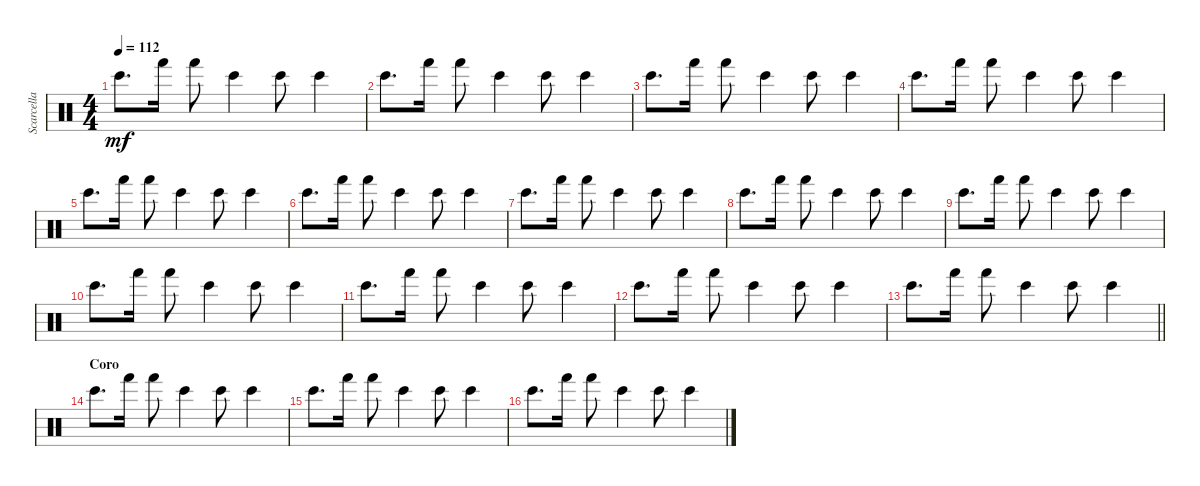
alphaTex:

\track ("Scarcella" "Scarcella") {instrument percussion}
\staff {score}
\articulation defaults
\ts (4 4)
\tempo 112
\clef neutral
\ks c "Bongo High (hit)".8{d dy mf} "Hand (hit)".16 "Hand (hit)".8 "Bongo High (hit)".4 "Bongo High (hit)".8 "Bongo High (hit)".4
|
"Bongo High (hit)".8{d} "Hand (hit)".16 "Hand (hit)".8 "Bongo High (hit)".4 "Bongo High (hit)".8 "Bongo High (hit)".4 |
"Bongo High (hit)".8{d} "Hand (hit)".16 "Hand (hit)".8 "Bongo High (hit)".4 "Bongo High (hit)".8 "Bongo High (hit)".4 |
"Bongo High (hit)".8{d} "Hand (hit)".16 "Hand (hit)".8 "Bongo High (hit)".4 "Bongo High (hit)".8 "Bongo High (hit)".4 |
"Bongo High (hit)".8{d} "Hand (hit)".16 "Hand (hit)".8 "Bongo High (hit)".4 "Bongo High (hit)".8 "Bongo High (hit)".4 |
"Bongo High (hit)".8{d} "Hand (hit)".16 "Hand (hit)".8 "Bongo High (hit)".4 "Bongo High (hit)".8 "Bongo High (hit)".4 |
"Bongo High (hit)".8{d} "Hand (hit)".16 "Hand (hit)".8 "Bongo High (hit)".4 "Bongo High (hit)".8 "Bongo High (hit)".4 |
"Bongo High (hit)".8{d} "Hand (hit)".16 "Hand (hit)".8 "Bongo High (hit)".4 "Bongo High (hit)".8 "Bongo High (hit)".4 |
"Bongo High (hit)".8{d} "Hand (hit)".16 "Hand (hit)".8 "Bongo High (hit)".4 "Bongo High (hit)".8 "Bongo High (hit)".4 |
"Bongo High (hit)".8{d} "Hand (hit)".16 "Hand (hit)".8 "Bongo High (hit)".4 "Bongo High (hit)".8 "Bongo High (hit)".4 |
"Bongo High (hit)".8{d} "Hand (hit)".16 "Hand (hit)".8 "Bongo High (hit)".4 "Bongo High (hit)".8 "Bongo High (hit)".4 |
"Bongo High (hit)".8{d} "Hand (hit)".16 "Hand (hit)".8 "Bongo High (hit)".4 "Bongo High (hit)".8 "Bongo High (hit)".4 |
\barLineRight lightlight "Bongo High (hit)".8{d} "Hand (hit)".16 "Hand (hit)".8 "Bongo High (hit)".4 "Bongo High (hit)".8 "Bongo High (hit)".4
|
\section ("" "Coro")
"Bongo High (hit)".8{d} "Hand (hit)".16 "Hand (hit)".8 "Bongo High (hit)".4 "Bongo High (hit)".8 "Bongo High (hit)".4 |
"Bongo High (hit)".8{d} "Hand (hit)".16 "Hand (hit)".8 "Bongo High (hit)".4 "Bongo High (hit)".8 "Bongo High (hit)".4 |
"Bongo High (hit)".8{d} "Hand (hit)".16 "Hand (hit)".8 "Bongo High (hit)".4 "Bongo High (hit)".8 "Bongo High (hit)".4
